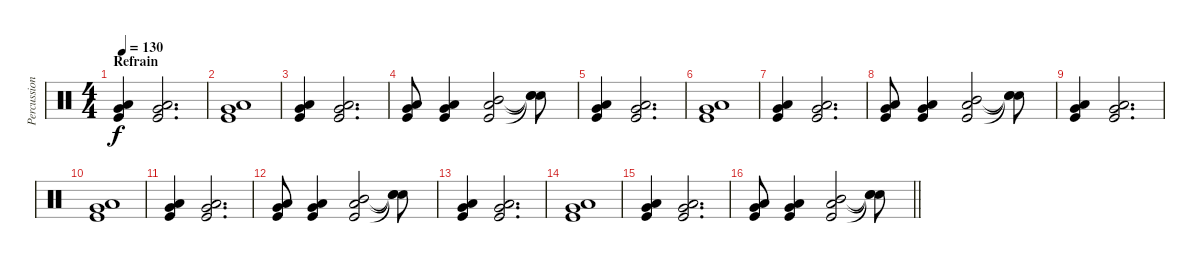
\track ("Percussions" "Percussion") {instrument percussion}
\staff {score}
\articulation defaults
\ts (4 4)
\section ("" "Refrain")
\tempo 130
\clef neutral
\ks c
("Low Tom (hit)" "Very Low Tom (hit)" "Kick (hit)").4{dy f} ("Low Tom (hit)" "Very Low Tom (hit)" "Kick (hit)").2{d} |
("Low Tom (hit)" "Very Low Tom (hit)" "Kick (hit)").1 |
("Low Tom (hit)" "Very Low Tom (hit)" "Kick (hit)").4 ("Low Tom (hit)" "Very Low Tom (hit)" "Kick (hit)").2{d} |
("Low Tom (hit)" "Very Low Tom (hit)" "Kick (hit)").8 ("Low Tom (hit)" "Very Low Tom (hit)" "Kick (hit)").4 ("Mid Tom (hit)" "Low Tom (hit)" "Kick (hit)").2 ("Snare (hit)"{t} "Snare (hit)"{t} "Snare (hit)"{t}).8 |
("Low Tom (hit)" "Very Low Tom (hit)" "Kick (hit)").4 ("Low Tom (hit)" "Very Low Tom (hit)" "Kick (hit)").2{d} |
("Low Tom (hit)" "Very Low Tom (hit)" "Kick (hit)").1 |
("Low Tom (hit)" "Very Low Tom (hit)" "Kick (hit)").4 ("Low Tom (hit)" "Very Low Tom (hit)" "Kick (hit)").2{d} |
("Low Tom (hit)" "Very Low Tom (hit)" "Kick (hit)").8 ("Low Tom (hit)" "Very Low Tom (hit)" "Kick (hit)").4 ("Mid Tom (hit)" "Low Tom (hit)" "Kick (hit)").2 ("Snare (hit)"{t} "Snare (hit)"{t} "Snare (hit)"{t}).8 |
("Low Tom (hit)" "Very Low Tom (hit)" "Kick (hit)").4 ("Low Tom (hit)" "Very Low Tom (hit)" "Kick (hit)").2{d} |
("Low Tom (hit)" "Very Low Tom (hit)" "Kick (hit)").1 |
("Low Tom (hit)" "Very Low Tom (hit)" "Kick (hit)").4 ("Low Tom (hit)" "Very Low Tom (hit)" "Kick (hit)").2{d} |
("Low Tom (hit)" "Very Low Tom (hit)" "Kick (hit)").8 ("Low Tom (hit)" "Very Low Tom (hit)" "Kick (hit)").4 ("Mid Tom (hit)" "Low Tom (hit)" "Kick (hit)").2 ("Snare (hit)"{t} "Snare (hit)"{t} "Snare (hit)"{t}).8 |
("Low Tom (hit)" "Very Low Tom (hit)" "Kick (hit)").4 ("Low Tom (hit)" "Very Low Tom (hit)" "Kick (hit)").2{d} |
("Low Tom (hit)" "Very Low Tom (hit)" "Kick (hit)").1 |
("Low Tom (hit)" "Very Low Tom (hit)" "Kick (hit)").4 ("Low Tom (hit)" "Very Low Tom (hit)" "Kick (hit)").2{d} |
\barLineRight lightlight
("Low Tom (hit)" "Very Low Tom (hit)" "Kick (hit)").8 ("Low Tom (hit)" "Very Low Tom (hit)" "Kick (hit)").4 ("Mid Tom (hit)" "Low Tom (hit)" "Kick (hit)").2 ("Snare (hit)"{t} "Snare (hit)"{t} "Snare (hit)"{t}).8
